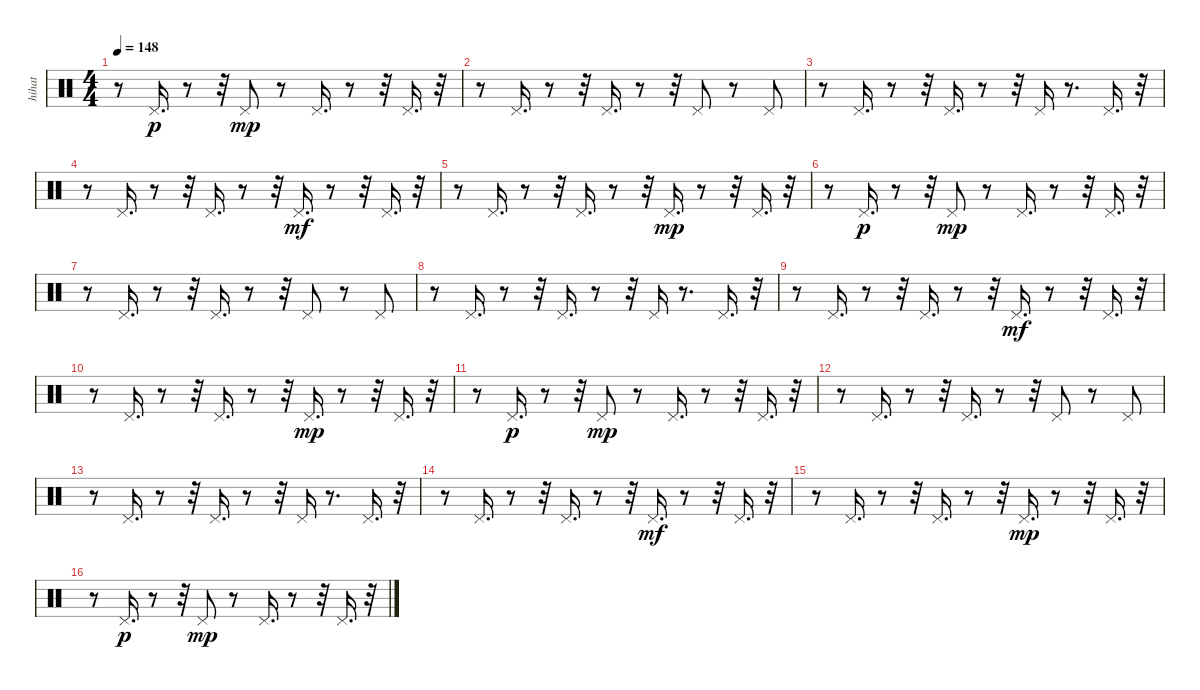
\track ("hihat               " "hihat     ") {instrument percussion}
\staff {score}
\articulation defaults
\ts (4 4)
\tempo 148
\clef neutral
\ks c
r.8{dy mp} "Pedal Hi-Hat (hit)".16{d dy p} r.8 r.32 "Pedal Hi-Hat (hit)".8{dy mp} r.8 "Pedal Hi-Hat (hit)".16{d} r.8 r.32 "Pedal Hi-Hat (hit)".16{d} r.32 |
r.8 "Pedal Hi-Hat (hit)".16{d} r.8 r.32 "Pedal Hi-Hat (hit)".16{d} r.8 r.32 "Pedal Hi-Hat (hit)".8 r.8 "Pedal Hi-Hat (hit)".8 |
r.8 "Pedal Hi-Hat (hit)".16{d} r.8 r.32 "Pedal Hi-Hat (hit)".16{d} r.8 r.32 "Pedal Hi-Hat (hit)".16 r.8{d} "Pedal Hi-Hat (hit)".16{d} r.32 |
r.8 "Pedal Hi-Hat (hit)".16{d} r.8 r.32 "Pedal Hi-Hat (hit)".16{d} r.8 r.32 "Pedal Hi-Hat (hit)".16{d dy mf} r.8 r.32 "Pedal Hi-Hat (hit)".16{d} r.32 |
r.8 "Pedal Hi-Hat (hit)".16{d} r.8 r.32 "Pedal Hi-Hat (hit)".16{d} r.8 r.32 "Pedal Hi-Hat (hit)".16{d dy mp} r.8 r.32 "Pedal Hi-Hat (hit)".16{d} r.32 |
r.8 "Pedal Hi-Hat (hit)".16{d dy p} r.8 r.32 "Pedal Hi-Hat (hit)".8{dy mp} r.8 "Pedal Hi-Hat (hit)".16{d} r.8 r.32 "Pedal Hi-Hat (hit)".16{d} r.32 |
r.8 "Pedal Hi-Hat (hit)".16{d} r.8 r.32 "Pedal Hi-Hat (hit)".16{d} r.8 r.32 "Pedal Hi-Hat (hit)".8 r.8 "Pedal Hi-Hat (hit)".8 |
r.8 "Pedal Hi-Hat (hit)".16{d} r.8 r.32 "Pedal Hi-Hat (hit)".16{d} r.8 r.32 "Pedal Hi-Hat (hit)".16 r.8{d} "Pedal Hi-Hat (hit)".16{d} r.32 |
r.8 "Pedal Hi-Hat (hit)".16{d} r.8 r.32 "Pedal Hi-Hat (hit)".16{d} r.8 r.32 "Pedal Hi-Hat (hit)".16{d dy mf} r.8 r.32 "Pedal Hi-Hat (hit)".16{d} r.32 |
r.8 "Pedal Hi-Hat (hit)".16{d} r.8 r.32 "Pedal Hi-Hat (hit)".16{d} r.8 r.32 "Pedal Hi-Hat (hit)".16{d dy mp} r.8 r.32 "Pedal Hi-Hat (hit)".16{d} r.32 |
r.8 "Pedal Hi-Hat (hit)".16{d dy p} r.8 r.32 "Pedal Hi-Hat (hit)".8{dy mp} r.8 "Pedal Hi-Hat (hit)".16{d} r.8 r.32 "Pedal Hi-Hat (hit)".16{d} r.32 |
r.8 "Pedal Hi-Hat (hit)".16{d} r.8 r.32 "Pedal Hi-Hat (hit)".16{d} r.8 r.32 "Pedal Hi-Hat (hit)".8 r.8 "Pedal Hi-Hat (hit)".8 |
r.8 "Pedal Hi-Hat (hit)".16{d} r.8 r.32 "Pedal Hi-Hat (hit)".16{d} r.8 r.32 "Pedal Hi-Hat (hit)".16 r.8{d} "Pedal Hi-Hat (hit)".16{d} r.32 |
r.8 "Pedal Hi-Hat (hit)".16{d} r.8 r.32 "Pedal Hi-Hat (hit)".16{d} r.8 r.32 "Pedal Hi-Hat (hit)".16{d dy mf} r.8 r.32 "Pedal Hi-Hat (hit)".16{d} r.32 |
r.8 "Pedal Hi-Hat (hit)".16{d} r.8 r.32 "Pedal Hi-Hat (hit)".16{d} r.8 r.32 "Pedal Hi-Hat (hit)".16{d dy mp} r.8 r.32 "Pedal Hi-Hat (hit)".16{d} r.32 |
r.8 "Pedal Hi-Hat (hit)".16{d dy p} r.8 r.32 "Pedal Hi-Hat (hit)".8{dy mp} r.8 "Pedal Hi-Hat (hit)".16{d} r.8 r.32 "Pedal Hi-Hat (hit)".16{d} r.32
